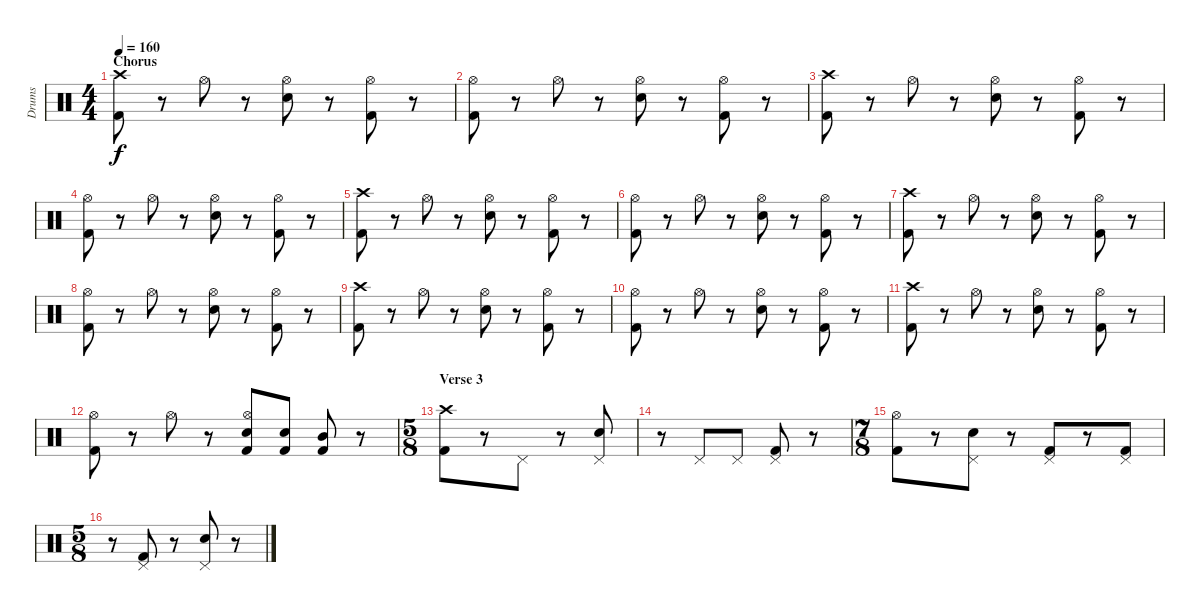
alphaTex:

\track ("Drums" "Drums") {instrument percussion}
\staff {score}
\articulation defaults
\ts (4 4)
\section ("" "Chorus")
\tempo 160
\clef neutral
\ks c
("Crash high (hit)" "Kick (hit) 2").8{dy f} r.8 "Hi-Hat (open)".8 r.8 ("Hi-Hat (open)" "Electric Snare (hit)").8 r.8 ("Hi-Hat (open)" "Kick (hit) 2").8 r.8 |
("Hi-Hat (open)" "Kick (hit) 2").8 r.8 "Hi-Hat (open)".8 r.8 ("Hi-Hat (open)" "Electric Snare (hit)").8 r.8 ("Hi-Hat (open)" "Kick (hit) 2").8 r.8 |
("Crash high (hit)" "Kick (hit) 2").8 r.8 "Hi-Hat (open)".8 r.8 ("Hi-Hat (open)" "Electric Snare (hit)").8 r.8 ("Hi-Hat (open)" "Kick (hit) 2").8 r.8 |
("Hi-Hat (open)" "Kick (hit) 2").8 r.8 "Hi-Hat (open)".8 r.8 ("Hi-Hat (open)" "Electric Snare (hit)").8 r.8 ("Hi-Hat (open)" "Kick (hit) 2").8 r.8 |
("Crash high (hit)" "Kick (hit) 2").8 r.8 "Hi-Hat (open)".8 r.8 ("Hi-Hat (open)" "Electric Snare (hit)").8 r.8 ("Hi-Hat (open)" "Kick (hit) 2").8 r.8 |
("Hi-Hat (open)" "Kick (hit) 2").8 r.8 "Hi-Hat (open)".8 r.8 ("Hi-Hat (open)" "Electric Snare (hit)").8 r.8 ("Hi-Hat (open)" "Kick (hit) 2").8 r.8 |
("Crash high (hit)" "Kick (hit) 2").8 r.8 "Hi-Hat (open)".8 r.8 ("Hi-Hat (open)" "Electric Snare (hit)").8 r.8 ("Hi-Hat (open)" "Kick (hit) 2").8 r.8 |
("Hi-Hat (open)" "Kick (hit) 2").8 r.8 "Hi-Hat (open)".8 r.8 ("Hi-Hat (open)" "Electric Snare (hit)").8 r.8 ("Hi-Hat (open)" "Kick (hit) 2").8 r.8 |
("Crash high (hit)" "Kick (hit) 2").8 r.8 "Hi-Hat (open)".8 r.8 ("Hi-Hat (open)" "Electric Snare (hit)").8 r.8 ("Hi-Hat (open)" "Kick (hit) 2").8 r.8 |
("Hi-Hat (open)" "Kick (hit) 2").8 r.8 "Hi-Hat (open)".8 r.8 ("Hi-Hat (open)" "Electric Snare (hit)").8 r.8 ("Hi-Hat (open)" "Kick (hit) 2").8 r.8 |
("Crash high (hit)" "Kick (hit) 2").8 r.8 "Hi-Hat (open)".8 r.8 ("Hi-Hat (open)" "Electric Snare (hit)").8 r.8 ("Hi-Hat (open)" "Kick (hit) 2").8 r.8 |
("Hi-Hat (open)" "Kick (hit) 2").8 r.8 "Hi-Hat (open)".8 r.8 ("Hi-Hat (open)" "Electric Snare (hit)" "Kick (hit) 2").8 ("Electric Snare (hit)" "Kick (hit) 2").8 ("Mid Tom (hit)" "Kick (hit) 2").8 r.8 |
\ts (5 8)
\section ("" "Verse 3")
("Crash high (hit)" "Kick (hit) 2").8 r.8 "Pedal Hi-Hat (hit)".8 r.8 ("Pedal Hi-Hat (hit)" "Electric Snare (hit)").8 |
r.8 "Pedal Hi-Hat (hit)".8 "Pedal Hi-Hat (hit)".8 ("Pedal Hi-Hat (hit)" "Kick (hit) 2").8 r.8 |
\ts (7 8)
("Hi-Hat (open)" "Kick (hit) 2").8 r.8 ("Pedal Hi-Hat (hit)" "Electric Snare (hit)").8 r.8 ("Pedal Hi-Hat (hit)" "Kick (hit) 2").8 r.8 ("Pedal Hi-Hat (hit)" "Kick (hit) 2").8 |
\ts (5 8)
r.8 ("Pedal Hi-Hat (hit)" "Kick (hit) 2").8 r.8 ("Pedal Hi-Hat (hit)" "Electric Snare (hit)").8 r.8
